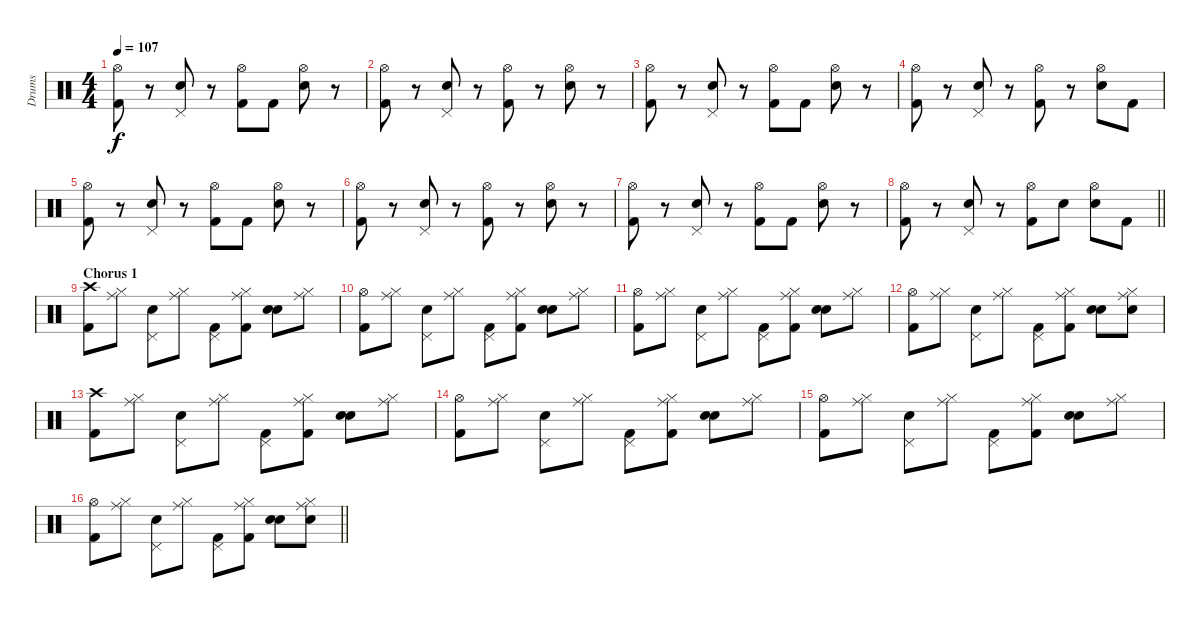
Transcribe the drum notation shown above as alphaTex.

\track ("Drums" "Drums") {instrument percussion}
\staff {score}
\articulation defaults
\ts (4 4)
\tempo 107
\clef neutral
\ks c
("Hi-Hat (open)" "Kick (hit) 2").8{dy f} r.8 ("Pedal Hi-Hat (hit)" "Electric Snare (hit)").8 r.8 ("Hi-Hat (open)" "Kick (hit) 2").8 "Kick (hit) 2".8 ("Hi-Hat (open)" "Electric Snare (hit)").8 r.8 |
("Hi-Hat (open)" "Kick (hit) 2").8 r.8 ("Pedal Hi-Hat (hit)" "Electric Snare (hit)").8 r.8 ("Hi-Hat (open)" "Kick (hit) 2").8 r.8 ("Hi-Hat (open)" "Electric Snare (hit)").8 r.8 |
("Hi-Hat (open)" "Kick (hit) 2").8 r.8 ("Pedal Hi-Hat (hit)" "Electric Snare (hit)").8 r.8 ("Hi-Hat (open)" "Kick (hit) 2").8 "Kick (hit) 2".8 ("Hi-Hat (open)" "Electric Snare (hit)").8 r.8 |
("Hi-Hat (open)" "Kick (hit) 2").8 r.8 ("Pedal Hi-Hat (hit)" "Electric Snare (hit)").8 r.8 ("Hi-Hat (open)" "Kick (hit) 2").8 r.8 ("Hi-Hat (open)" "Electric Snare (hit)").8 "Kick (hit) 2".8 |
("Hi-Hat (open)" "Kick (hit) 2").8 r.8 ("Pedal Hi-Hat (hit)" "Electric Snare (hit)").8 r.8 ("Hi-Hat (open)" "Kick (hit) 2").8 "Kick (hit) 2".8 ("Hi-Hat (open)" "Electric Snare (hit)").8 r.8 |
("Hi-Hat (open)" "Kick (hit) 2").8 r.8 ("Pedal Hi-Hat (hit)" "Electric Snare (hit)").8 r.8 ("Hi-Hat (open)" "Kick (hit) 2").8 r.8 ("Hi-Hat (open)" "Electric Snare (hit)").8 r.8 |
("Hi-Hat (open)" "Kick (hit) 2").8 r.8 ("Pedal Hi-Hat (hit)" "Electric Snare (hit)").8 r.8 ("Hi-Hat (open)" "Kick (hit) 2").8 "Kick (hit) 2".8 ("Hi-Hat (open)" "Electric Snare (hit)").8 r.8 |
\barLineRight lightlight
("Hi-Hat (open)" "Kick (hit) 2").8 r.8 ("Pedal Hi-Hat (hit)" "Electric Snare (hit)").8 r.8 ("Hi-Hat (open)" "Kick (hit) 2").8 "Electric Snare (hit)".8 ("Hi-Hat (open)" "Electric Snare (hit)").8 "Kick (hit) 2".8 |
\section ("" "Chorus 1")
("Crash high (hit)" "Kick (hit) 2").8 ("Ride (middle)" "Hi-Hat (closed)").8 ("Pedal Hi-Hat (hit)" "Electric Snare (hit)").8 ("Ride (middle)" "Hi-Hat (closed)").8 ("Pedal Hi-Hat (hit)" "Kick (hit) 2").8 ("Ride (middle)" "Hi-Hat (closed)" "Kick (hit) 2").8 ("Snare (hit) 2" "Electric Snare (hit)").8 ("Ride (middle)" "Hi-Hat (closed)").8 |
("Hi-Hat (open)" "Kick (hit) 2").8 ("Ride (middle)" "Hi-Hat (closed)").8 ("Pedal Hi-Hat (hit)" "Electric Snare (hit)").8 ("Ride (middle)" "Hi-Hat (closed)").8 ("Pedal Hi-Hat (hit)" "Kick (hit) 2").8 ("Ride (middle)" "Hi-Hat (closed)" "Kick (hit) 2").8 ("Snare (hit) 2" "Electric Snare (hit)").8 ("Ride (middle)" "Hi-Hat (closed)").8 |
("Hi-Hat (open)" "Kick (hit) 2").8 ("Ride (middle)" "Hi-Hat (closed)").8 ("Pedal Hi-Hat (hit)" "Electric Snare (hit)").8 ("Ride (middle)" "Hi-Hat (closed)").8 ("Pedal Hi-Hat (hit)" "Kick (hit) 2").8 ("Ride (middle)" "Hi-Hat (closed)" "Kick (hit) 2").8 ("Snare (hit) 2" "Electric Snare (hit)").8 ("Ride (middle)" "Hi-Hat (closed)").8 |
("Hi-Hat (open)" "Kick (hit) 2").8 ("Ride (middle)" "Hi-Hat (closed)").8 ("Pedal Hi-Hat (hit)" "Electric Snare (hit)").8 ("Ride (middle)" "Hi-Hat (closed)").8 ("Pedal Hi-Hat (hit)" "Kick (hit) 2").8 ("Ride (middle)" "Hi-Hat (closed)" "Kick (hit) 2").8 ("Snare (hit) 2" "Electric Snare (hit)").8 ("Ride (middle)" "Hi-Hat (closed)" "Electric Snare (hit)").8 |
("Crash high (hit)" "Kick (hit) 2").8 ("Ride (middle)" "Hi-Hat (closed)").8 ("Pedal Hi-Hat (hit)" "Electric Snare (hit)").8 ("Ride (middle)" "Hi-Hat (closed)").8 ("Pedal Hi-Hat (hit)" "Kick (hit) 2").8 ("Ride (middle)" "Hi-Hat (closed)" "Kick (hit) 2").8 ("Snare (hit) 2" "Electric Snare (hit)").8 ("Ride (middle)" "Hi-Hat (closed)").8 |
("Hi-Hat (open)" "Kick (hit) 2").8 ("Ride (middle)" "Hi-Hat (closed)").8 ("Pedal Hi-Hat (hit)" "Electric Snare (hit)").8 ("Ride (middle)" "Hi-Hat (closed)").8 ("Pedal Hi-Hat (hit)" "Kick (hit) 2").8 ("Ride (middle)" "Hi-Hat (closed)" "Kick (hit) 2").8 ("Snare (hit) 2" "Electric Snare (hit)").8 ("Ride (middle)" "Hi-Hat (closed)").8 |
("Hi-Hat (open)" "Kick (hit) 2").8 ("Ride (middle)" "Hi-Hat (closed)").8 ("Pedal Hi-Hat (hit)" "Electric Snare (hit)").8 ("Ride (middle)" "Hi-Hat (closed)").8 ("Pedal Hi-Hat (hit)" "Kick (hit) 2").8 ("Ride (middle)" "Hi-Hat (closed)" "Kick (hit) 2").8 ("Snare (hit) 2" "Electric Snare (hit)").8 ("Ride (middle)" "Hi-Hat (closed)").8 |
\barLineRight lightlight
("Hi-Hat (open)" "Kick (hit) 2").8 ("Ride (middle)" "Hi-Hat (closed)").8 ("Pedal Hi-Hat (hit)" "Electric Snare (hit)").8 ("Ride (middle)" "Hi-Hat (closed)").8 ("Pedal Hi-Hat (hit)" "Kick (hit) 2").8 ("Ride (middle)" "Hi-Hat (closed)" "Kick (hit) 2").8 ("Snare (hit) 2" "Electric Snare (hit)").8 ("Ride (middle)" "Hi-Hat (closed)" "Electric Snare (hit)").8
